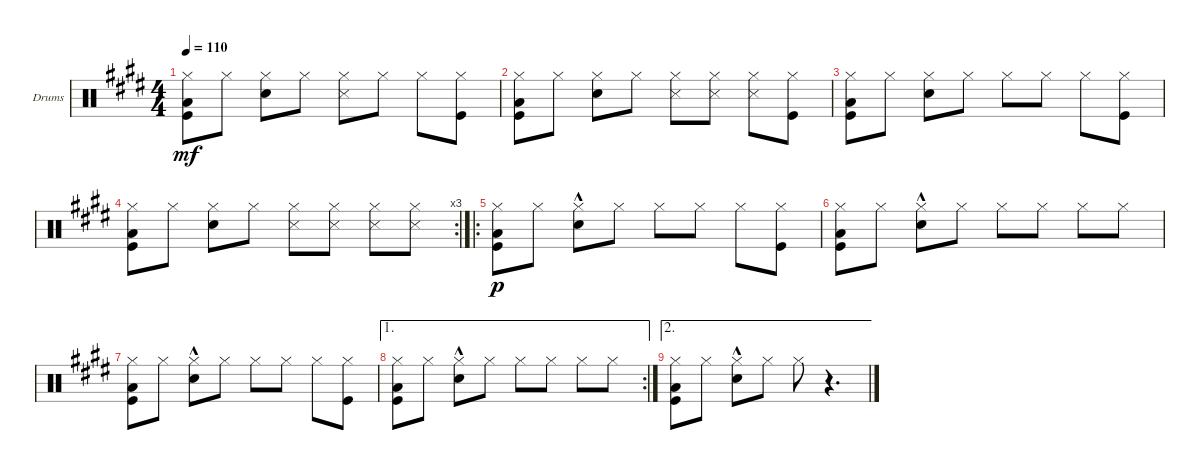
\defaultSystemsLayout 4
\bracketExtendMode groupsimilarinstruments
\firstSystemTrackNameOrientation horizontal
\otherSystemsTrackNameOrientation horizontal
\track ("Drumkit" "Drums") {instrument percussion}
\staff {score}
\articulation defaults
\ts (4 4)
\tempo 110
\clef neutral
\ks c#minor
("Hi-Hat (closed)" "Kick (hit)" "Low Tom (hit)").8{dy mf} "Hi-Hat (closed)".8 ("Hi-Hat (closed)" "Snare (hit) 2").8 "Hi-Hat (closed)".8 ("Hi-Hat (closed)" "Snare (side stick) 3").8 "Hi-Hat (closed)".8 "Hi-Hat (closed)".8 ("Hi-Hat (closed)" "Kick (hit)").8 |
("Hi-Hat (closed)" "Kick (hit)" "Low Tom (hit)").8 "Hi-Hat (closed)".8 ("Hi-Hat (closed)" "Snare (hit) 2").8 "Hi-Hat (closed)".8 ("Hi-Hat (closed)" "Snare (side stick) 3").8 ("Hi-Hat (closed)" "Snare (side stick) 3").8 ("Hi-Hat (closed)" "Snare (side stick) 3").8 ("Hi-Hat (closed)" "Kick (hit)").8 |
("Hi-Hat (closed)" "Kick (hit)" "Low Tom (hit)").8 "Hi-Hat (closed)".8 ("Hi-Hat (closed)" "Snare (hit) 2").8 "Hi-Hat (closed)".8 "Hi-Hat (closed)".8 "Hi-Hat (closed)".8 "Hi-Hat (closed)".8 ("Hi-Hat (closed)" "Kick (hit)").8 |
\rc 3
("Hi-Hat (closed)" "Kick (hit)" "Low Tom (hit)").8 "Hi-Hat (closed)".8 ("Hi-Hat (closed)" "Snare (hit) 2").8 "Hi-Hat (closed)".8 ("Hi-Hat (closed)" "Snare (side stick) 3").8 ("Hi-Hat (closed)" "Snare (side stick) 3").8 ("Hi-Hat (closed)" "Snare (side stick) 3").8 ("Hi-Hat (closed)" "Snare (side stick) 3").8 |
\ro
("Kick (hit)" "Hi-Hat (closed)" "Low Tom (hit)").8{dy p} "Hi-Hat (closed)".8 ("Hi-Hat (closed)" "Snare (hit) 2"{hac}).8 "Hi-Hat (closed)".8 "Hi-Hat (closed)".8 "Hi-Hat (closed)".8 "Hi-Hat (closed)".8 ("Hi-Hat (closed)" "Kick (hit)").8 |
("Kick (hit)" "Hi-Hat (closed)" "Low Tom (hit)").8 "Hi-Hat (closed)".8 ("Hi-Hat (closed)" "Snare (hit) 2"{hac}).8 "Hi-Hat (closed)".8 "Hi-Hat (closed)".8 "Hi-Hat (closed)".8 "Hi-Hat (closed)".8 "Hi-Hat (closed)".8 |
("Kick (hit)" "Hi-Hat (closed)" "Low Tom (hit)").8 "Hi-Hat (closed)".8 ("Hi-Hat (closed)" "Snare (hit) 2"{hac}).8 "Hi-Hat (closed)".8 "Hi-Hat (closed)".8 "Hi-Hat (closed)".8 "Hi-Hat (closed)".8 ("Hi-Hat (closed)" "Kick (hit)").8 |
\ae 1
\rc 2
("Kick (hit)" "Hi-Hat (closed)" "Low Tom (hit)").8 "Hi-Hat (closed)".8 ("Hi-Hat (closed)" "Snare (hit) 2"{hac}).8 "Hi-Hat (closed)".8 "Hi-Hat (closed)".8 "Hi-Hat (closed)".8 "Hi-Hat (closed)".8 "Hi-Hat (closed)".8 |
\ae 2
("Kick (hit)" "Hi-Hat (closed)" "Low Tom (hit)").8 "Hi-Hat (closed)".8 ("Hi-Hat (closed)" "Snare (hit) 2"{hac}).8 "Hi-Hat (closed)".8 "Hi-Hat (closed)".8 r.4{d}
